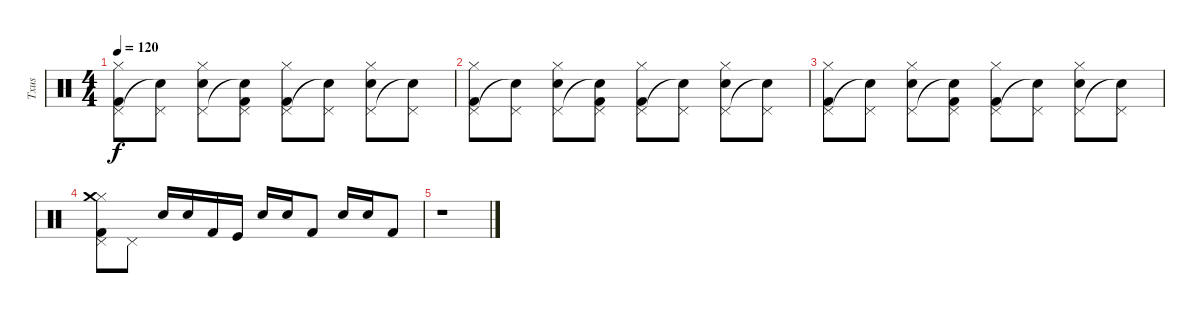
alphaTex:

\track ("Txus" "Txus") {instrument percussion}
\staff {score}
\articulation defaults
\ts (4 4)
\tempo 120
\clef neutral
\ks c
("Hi-Hat (closed)" "Pedal Hi-Hat (hit)" "Kick (hit) 2").8{dy f} ("Pedal Hi-Hat (hit)" "Snare (hit)"{t}).8 ("Hi-Hat (closed)" "Pedal Hi-Hat (hit)" "Snare (hit) 2").8 ("Pedal Hi-Hat (hit)" "Snare (hit)"{t} "Kick (hit) 2").8 ("Hi-Hat (closed)" "Pedal Hi-Hat (hit)" "Kick (hit) 2").8 ("Pedal Hi-Hat (hit)" "Snare (hit)"{t}).8 ("Hi-Hat (closed)" "Pedal Hi-Hat (hit)" "Snare (hit) 2").8 ("Pedal Hi-Hat (hit)" "Snare (hit) 2"{t}).8 |
("Hi-Hat (closed)" "Pedal Hi-Hat (hit)" "Kick (hit) 2").8 ("Pedal Hi-Hat (hit)" "Snare (hit)"{t}).8 ("Hi-Hat (closed)" "Pedal Hi-Hat (hit)" "Snare (hit) 2").8 ("Pedal Hi-Hat (hit)" "Snare (hit)"{t} "Kick (hit) 2").8 ("Hi-Hat (closed)" "Pedal Hi-Hat (hit)" "Kick (hit) 2").8 ("Pedal Hi-Hat (hit)" "Snare (hit)"{t}).8 ("Hi-Hat (closed)" "Pedal Hi-Hat (hit)" "Snare (hit) 2").8 ("Pedal Hi-Hat (hit)" "Snare (hit) 2"{t}).8 |
("Hi-Hat (closed)" "Pedal Hi-Hat (hit)" "Kick (hit) 2").8 ("Pedal Hi-Hat (hit)" "Snare (hit)"{t}).8 ("Hi-Hat (closed)" "Pedal Hi-Hat (hit)" "Snare (hit) 2").8 ("Pedal Hi-Hat (hit)" "Snare (hit)"{t} "Kick (hit) 2").8 ("Hi-Hat (closed)" "Pedal Hi-Hat (hit)" "Kick (hit) 2").8 ("Pedal Hi-Hat (hit)" "Snare (hit)"{t}).8 ("Hi-Hat (closed)" "Pedal Hi-Hat (hit)" "Snare (hit) 2").8 ("Pedal Hi-Hat (hit)" "Snare (hit) 2"{t}).8 |
("Hi-Hat (closed)" "Pedal Hi-Hat (hit)" "Crash medium (hit)" "Kick (hit) 2").8 "Pedal Hi-Hat (hit)".8 "Snare (hit) 2".16 "Snare (hit) 2".16 "Kick (hit) 2".16 "Kick (hit)".16 "Snare (hit) 2".16 "Snare (hit) 2".16 "Kick (hit) 2".8 "Snare (hit) 2".16 "Snare (hit) 2".16 "Kick (hit) 2".8 |
r.1
